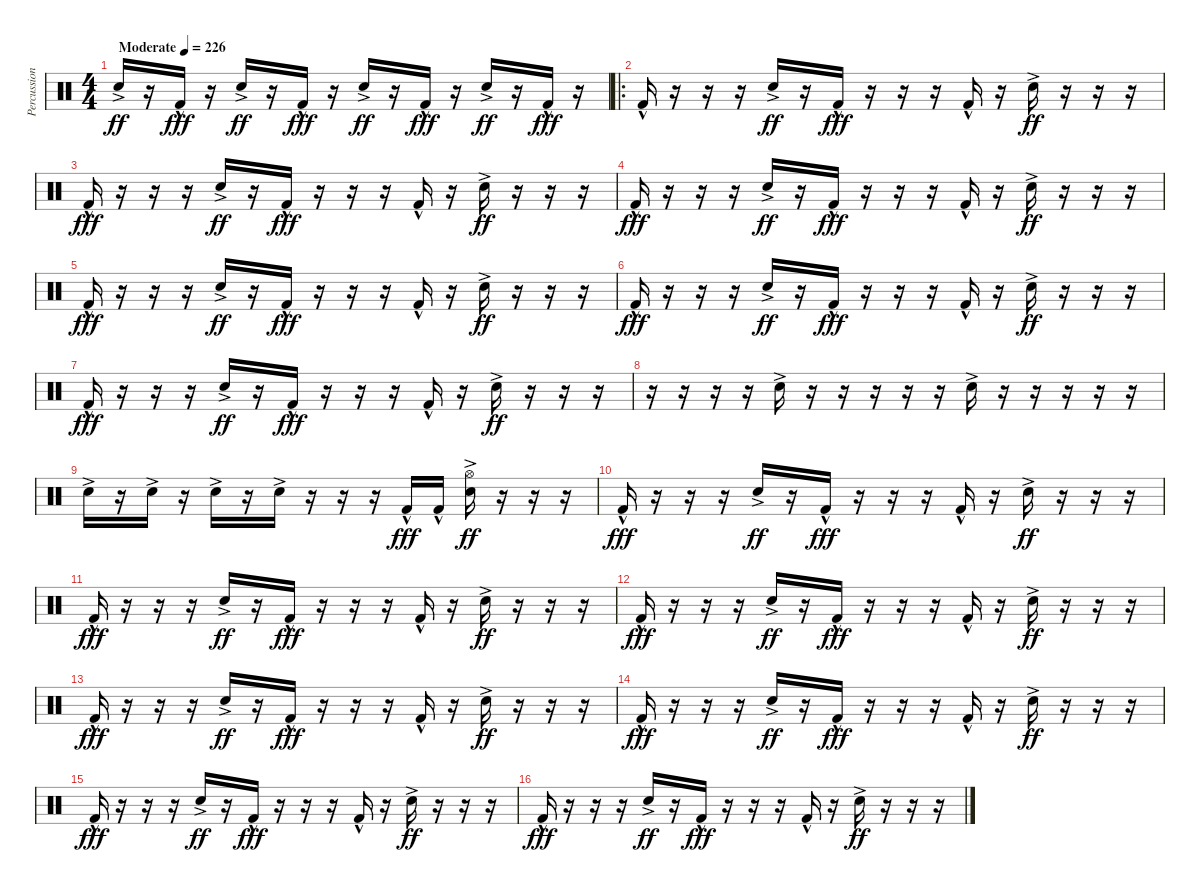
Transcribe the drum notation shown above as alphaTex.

\track ("Percussion" "Percussion") {instrument percussion bank 255}
\staff {score}
\articulation defaults
\ts (4 4)
\tempo (226 "Moderate")
\clef neutral
\ks c "Snare (hit) 2"{ac}.16{dy ff}
r.16 "Kick (hit) 2"{hac}.16{dy fff} r.16 "Snare (hit) 2"{ac}.16{dy ff} r.16 "Kick (hit) 2"{hac}.16{dy fff} r.16 "Snare (hit) 2"{ac}.16{dy ff} r.16 "Kick (hit) 2"{hac}.16{dy fff} r.16 "Snare (hit) 2"{ac}.16{dy ff} r.16 "Kick (hit) 2"{hac}.16{dy fff} r.16 |
\ro "Kick (hit) 2"{hac}.16
r.16 r.16 r.16 "Snare (hit) 2"{ac}.16{dy ff} r.16 "Kick (hit) 2"{hac}.16{dy fff} r.16 r.16 r.16 "Kick (hit) 2"{hac}.16 r.16 "Snare (hit) 2"{ac}.16{dy ff} r.16 r.16 r.16 |
"Kick (hit) 2"{hac}.16{dy fff} r.16 r.16 r.16 "Snare (hit) 2"{ac}.16{dy ff} r.16 "Kick (hit) 2"{hac}.16{dy fff} r.16 r.16 r.16 "Kick (hit) 2"{hac}.16 r.16 "Snare (hit) 2"{ac}.16{dy ff} r.16 r.16 r.16 |
"Kick (hit) 2"{hac}.16{dy fff} r.16 r.16 r.16 "Snare (hit) 2"{ac}.16{dy ff} r.16 "Kick (hit) 2"{hac}.16{dy fff} r.16 r.16 r.16 "Kick (hit) 2"{hac}.16 r.16 "Snare (hit) 2"{ac}.16{dy ff} r.16 r.16 r.16 |
"Kick (hit) 2"{hac}.16{dy fff} r.16 r.16 r.16 "Snare (hit) 2"{ac}.16{dy ff} r.16 "Kick (hit) 2"{hac}.16{dy fff} r.16 r.16 r.16 "Kick (hit) 2"{hac}.16 r.16 "Snare (hit) 2"{ac}.16{dy ff} r.16 r.16 r.16 |
"Kick (hit) 2"{hac}.16{dy fff} r.16 r.16 r.16 "Snare (hit) 2"{ac}.16{dy ff} r.16 "Kick (hit) 2"{hac}.16{dy fff} r.16 r.16 r.16 "Kick (hit) 2"{hac}.16 r.16 "Snare (hit) 2"{ac}.16{dy ff} r.16 r.16 r.16 |
"Kick (hit) 2"{hac}.16{dy fff} r.16 r.16 r.16 "Snare (hit) 2"{ac}.16{dy ff} r.16 "Kick (hit) 2"{hac}.16{dy fff} r.16 r.16 r.16 "Kick (hit) 2"{hac}.16 r.16 "Snare (hit) 2"{ac}.16{dy ff} r.16 r.16 r.16 |
r.16 r.16 r.16 r.16 "Snare (hit) 2"{ac}.16 r.16 r.16 r.16 r.16 r.16 "Snare (hit) 2"{ac}.16 r.16 r.16 r.16 r.16 r.16 |
"Snare (hit) 2"{ac}.16 r.16 "Snare (hit) 2"{ac}.16 r.16 "Snare (hit) 2"{ac}.16 r.16 "Snare (hit) 2"{ac}.16 r.16 r.16 r.16 "Kick (hit) 2"{hac}.16{dy fff} "Kick (hit) 2"{hac}.16 ("Hi-Hat (open)"{ac} "Snare (hit) 2"{ac}).16{dy ff} r.16 r.16 r.16 |
"Kick (hit) 2"{hac}.16{dy fff} r.16 r.16 r.16 "Snare (hit) 2"{ac}.16{dy ff} r.16 "Kick (hit) 2"{hac}.16{dy fff} r.16 r.16 r.16 "Kick (hit) 2"{hac}.16 r.16 "Snare (hit) 2"{ac}.16{dy ff} r.16 r.16 r.16 |
"Kick (hit) 2"{hac}.16{dy fff} r.16 r.16 r.16 "Snare (hit) 2"{ac}.16{dy ff} r.16 "Kick (hit) 2"{hac}.16{dy fff} r.16 r.16 r.16 "Kick (hit) 2"{hac}.16 r.16 "Snare (hit) 2"{ac}.16{dy ff} r.16 r.16 r.16 |
"Kick (hit) 2"{hac}.16{dy fff} r.16 r.16 r.16 "Snare (hit) 2"{ac}.16{dy ff} r.16 "Kick (hit) 2"{hac}.16{dy fff} r.16 r.16 r.16 "Kick (hit) 2"{hac}.16 r.16 "Snare (hit) 2"{ac}.16{dy ff} r.16 r.16 r.16 |
"Kick (hit) 2"{hac}.16{dy fff} r.16 r.16 r.16 "Snare (hit) 2"{ac}.16{dy ff} r.16 "Kick (hit) 2"{hac}.16{dy fff} r.16 r.16 r.16 "Kick (hit) 2"{hac}.16 r.16 "Snare (hit) 2"{ac}.16{dy ff} r.16 r.16 r.16 |
"Kick (hit) 2"{hac}.16{dy fff} r.16 r.16 r.16 "Snare (hit) 2"{ac}.16{dy ff} r.16 "Kick (hit) 2"{hac}.16{dy fff} r.16 r.16 r.16 "Kick (hit) 2"{hac}.16 r.16 "Snare (hit) 2"{ac}.16{dy ff} r.16 r.16 r.16 |
"Kick (hit) 2"{hac}.16{dy fff} r.16 r.16 r.16 "Snare (hit) 2"{ac}.16{dy ff} r.16 "Kick (hit) 2"{hac}.16{dy fff} r.16 r.16 r.16 "Kick (hit) 2"{hac}.16 r.16 "Snare (hit) 2"{ac}.16{dy ff} r.16 r.16 r.16 |
"Kick (hit) 2"{hac}.16{dy fff} r.16 r.16 r.16 "Snare (hit) 2"{ac}.16{dy ff} r.16 "Kick (hit) 2"{hac}.16{dy fff} r.16 r.16 r.16 "Kick (hit) 2"{hac}.16 r.16 "Snare (hit) 2"{ac}.16{dy ff} r.16 r.16 r.16
